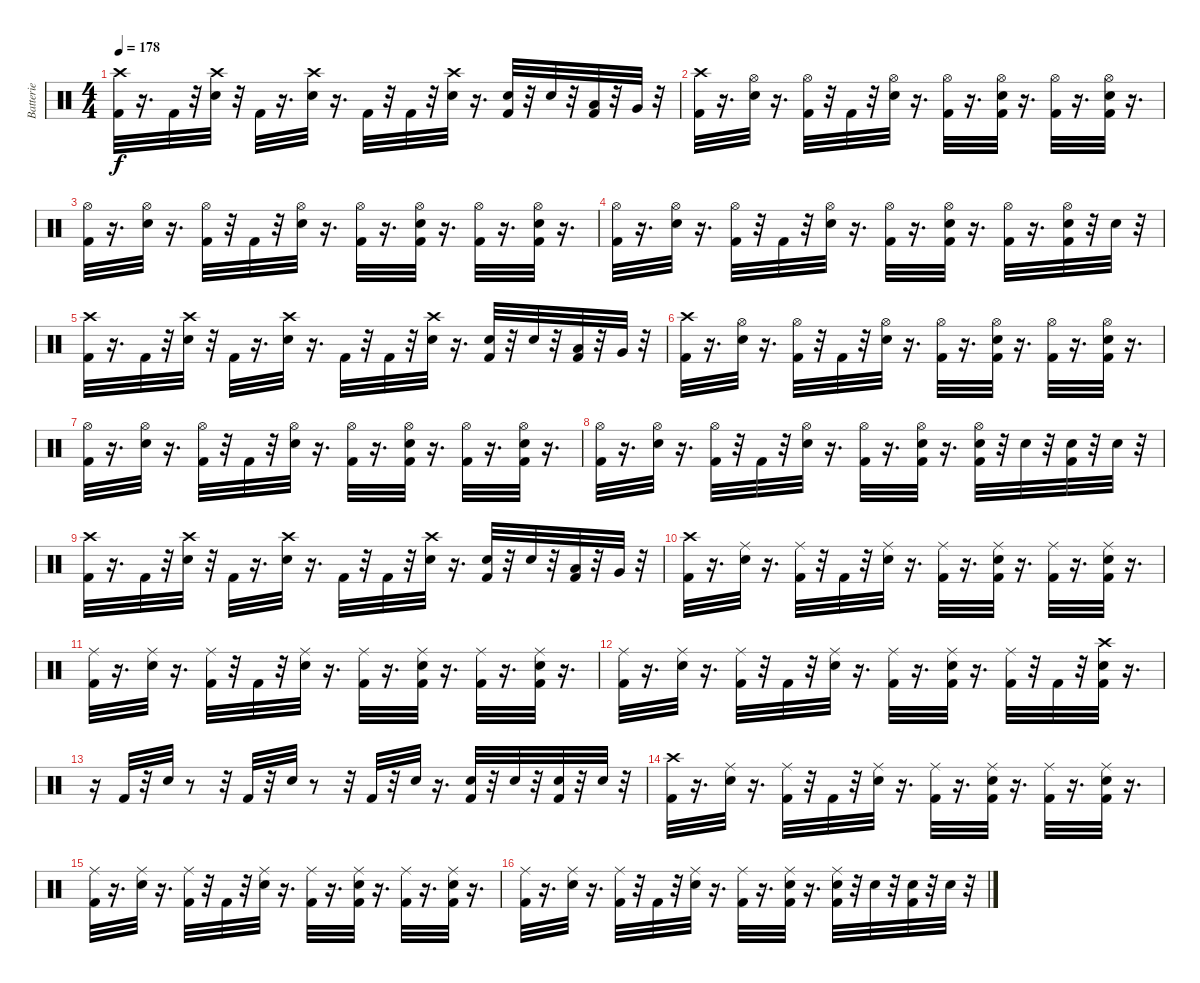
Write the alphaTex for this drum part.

\track ("Batterie" "Batterie") {instrument percussion}
\staff {score}
\articulation defaults
\ts (4 4)
\tempo 178
\clef neutral
\ks c
("Kick (hit) 2" "Crash high (hit)").32{dy f} r.16{d} "Kick (hit) 2".32 r.32 ("Crash high (hit)" "Electric Snare (hit)").32 r.32 "Kick (hit) 2".32 r.16{d} ("Electric Snare (hit)" "Crash high (hit)").32 r.16{d} "Kick (hit) 2".32 r.32 "Kick (hit) 2".32 r.32 ("Electric Snare (hit)" "Crash high (hit)").32 r.16{d} ("Kick (hit) 2" "Electric Snare (hit)").32 r.32 "Electric Snare (hit)".32 r.32 ("Kick (hit) 2" "Low Tom (hit)").32 r.32 "Very Low Tom (hit)".32 r.32 |
("Kick (hit) 2" "Crash high (hit)").32 r.16{d} ("Electric Snare (hit)" "Hi-Hat (open)").32 r.16{d} ("Kick (hit) 2" "Hi-Hat (open)").32 r.32 "Kick (hit) 2".32 r.32 ("Electric Snare (hit)" "Hi-Hat (open)").32 r.16{d} ("Kick (hit) 2" "Hi-Hat (open)").32 r.16{d} ("Electric Snare (hit)" "Kick (hit) 2" "Hi-Hat (open)").32 r.16{d} ("Kick (hit) 2" "Hi-Hat (open)").32 r.16{d} ("Electric Snare (hit)" "Kick (hit) 2" "Hi-Hat (open)").32 r.16{d} |
("Kick (hit) 2" "Hi-Hat (open)").32 r.16{d} ("Electric Snare (hit)" "Hi-Hat (open)").32 r.16{d} ("Kick (hit) 2" "Hi-Hat (open)").32 r.32 "Kick (hit) 2".32 r.32 ("Electric Snare (hit)" "Hi-Hat (open)").32 r.16{d} ("Kick (hit) 2" "Hi-Hat (open)").32 r.16{d} ("Kick (hit) 2" "Electric Snare (hit)" "Hi-Hat (open)").32 r.16{d} ("Kick (hit) 2" "Hi-Hat (open)").32 r.16{d} ("Kick (hit) 2" "Electric Snare (hit)" "Hi-Hat (open)").32 r.16{d} |
("Kick (hit) 2" "Hi-Hat (open)").32 r.16{d} ("Electric Snare (hit)" "Hi-Hat (open)").32 r.16{d} ("Kick (hit) 2" "Hi-Hat (open)").32 r.32 "Kick (hit) 2".32 r.32 ("Electric Snare (hit)" "Hi-Hat (open)").32 r.16{d} ("Kick (hit) 2" "Hi-Hat (open)").32 r.16{d} ("Electric Snare (hit)" "Kick (hit) 2" "Hi-Hat (open)").32 r.16{d} ("Kick (hit) 2" "Hi-Hat (open)").32 r.16{d} ("Electric Snare (hit)" "Kick (hit) 2" "Hi-Hat (open)").32 r.32 "Electric Snare (hit)".32 r.32 |
("Kick (hit) 2" "Crash high (hit)").32 r.16{d} "Kick (hit) 2".32 r.32 ("Crash high (hit)" "Electric Snare (hit)").32 r.32 "Kick (hit) 2".32 r.16{d} ("Electric Snare (hit)" "Crash high (hit)").32 r.16{d} "Kick (hit) 2".32 r.32 "Kick (hit) 2".32 r.32 ("Electric Snare (hit)" "Crash high (hit)").32 r.16{d} ("Kick (hit) 2" "Electric Snare (hit)").32 r.32 "Electric Snare (hit)".32 r.32 ("Kick (hit) 2" "Low Tom (hit)").32 r.32 "Very Low Tom (hit)".32 r.32 |
("Kick (hit) 2" "Crash high (hit)").32 r.16{d} ("Electric Snare (hit)" "Hi-Hat (open)").32 r.16{d} ("Kick (hit) 2" "Hi-Hat (open)").32 r.32 "Kick (hit) 2".32 r.32 ("Electric Snare (hit)" "Hi-Hat (open)").32 r.16{d} ("Kick (hit) 2" "Hi-Hat (open)").32 r.16{d} ("Electric Snare (hit)" "Kick (hit) 2" "Hi-Hat (open)").32 r.16{d} ("Kick (hit) 2" "Hi-Hat (open)").32 r.16{d} ("Electric Snare (hit)" "Kick (hit) 2" "Hi-Hat (open)").32 r.16{d} |
("Kick (hit) 2" "Hi-Hat (open)").32 r.16{d} ("Electric Snare (hit)" "Hi-Hat (open)").32 r.16{d} ("Kick (hit) 2" "Hi-Hat (open)").32 r.32 "Kick (hit) 2".32 r.32 ("Electric Snare (hit)" "Hi-Hat (open)").32 r.16{d} ("Kick (hit) 2" "Hi-Hat (open)").32 r.16{d} ("Kick (hit) 2" "Electric Snare (hit)" "Hi-Hat (open)").32 r.16{d} ("Kick (hit) 2" "Hi-Hat (open)").32 r.16{d} ("Kick (hit) 2" "Electric Snare (hit)" "Hi-Hat (open)").32 r.16{d} |
("Kick (hit) 2" "Hi-Hat (open)").32 r.16{d} ("Electric Snare (hit)" "Hi-Hat (open)").32 r.16{d} ("Kick (hit) 2" "Hi-Hat (open)").32 r.32 "Kick (hit) 2".32 r.32 ("Electric Snare (hit)" "Hi-Hat (open)").32 r.16{d} ("Kick (hit) 2" "Hi-Hat (open)").32 r.16{d} ("Electric Snare (hit)" "Kick (hit) 2" "Hi-Hat (open)").32 r.16{d} ("Kick (hit) 2" "Hi-Hat (open)" "Electric Snare (hit)").32 r.32 "Electric Snare (hit)".32 r.32 ("Electric Snare (hit)" "Kick (hit) 2").32 r.32 "Electric Snare (hit)".32 r.32 |
("Kick (hit) 2" "Crash high (hit)").32 r.16{d} "Kick (hit) 2".32 r.32 ("Crash high (hit)" "Electric Snare (hit)").32 r.32 "Kick (hit) 2".32 r.16{d} ("Electric Snare (hit)" "Crash high (hit)").32 r.16{d} "Kick (hit) 2".32 r.32 "Kick (hit) 2".32 r.32 ("Electric Snare (hit)" "Crash high (hit)").32 r.16{d} ("Kick (hit) 2" "Electric Snare (hit)").32 r.32 "Electric Snare (hit)".32 r.32 ("Kick (hit) 2" "Low Tom (hit)").32 r.32 "Very Low Tom (hit)".32 r.32 |
("Kick (hit) 2" "Crash high (hit)").32 r.16{d} ("Electric Snare (hit)" "Ride (middle)").32 r.16{d} ("Kick (hit) 2" "Ride (middle)").32 r.32 "Kick (hit) 2".32 r.32 ("Electric Snare (hit)" "Ride (middle)").32 r.16{d} ("Kick (hit) 2" "Ride (middle)").32 r.16{d} ("Electric Snare (hit)" "Ride (middle)" "Kick (hit) 2").32 r.16{d} ("Kick (hit) 2" "Ride (middle)").32 r.16{d} ("Electric Snare (hit)" "Ride (middle)" "Kick (hit) 2").32 r.16{d} |
("Kick (hit) 2" "Ride (middle)").32 r.16{d} ("Electric Snare (hit)" "Ride (middle)").32 r.16{d} ("Kick (hit) 2" "Ride (middle)").32 r.32 "Kick (hit) 2".32 r.32 ("Electric Snare (hit)" "Ride (middle)").32 r.16{d} ("Kick (hit) 2" "Ride (middle)").32 r.16{d} ("Electric Snare (hit)" "Ride (middle)" "Kick (hit) 2").32 r.16{d} ("Kick (hit) 2" "Ride (middle)").32 r.16{d} ("Electric Snare (hit)" "Ride (middle)" "Kick (hit) 2").32 r.16{d} |
("Kick (hit) 2" "Ride (middle)").32 r.16{d} ("Electric Snare (hit)" "Ride (middle)").32 r.16{d} ("Kick (hit) 2" "Ride (middle)").32 r.32 "Kick (hit) 2".32 r.32 ("Electric Snare (hit)" "Ride (middle)").32 r.16{d} ("Kick (hit) 2" "Ride (middle)").32 r.16{d} ("Electric Snare (hit)" "Ride (middle)" "Kick (hit) 2").32 r.16{d} ("Kick (hit) 2" "Ride (middle)").32 r.32 "Kick (hit) 2".32 r.32 ("Electric Snare (hit)" "Kick (hit) 2" "Crash high (hit)").32 r.16{d} |
r.16 "Kick (hit) 2".32 r.32 "Electric Snare (hit)".32 r.8 r.32 "Kick (hit) 2".32 r.32 "Electric Snare (hit)".32 r.8 r.32 "Kick (hit) 2".32 r.32 "Electric Snare (hit)".32 r.16{d} ("Kick (hit) 2" "Electric Snare (hit)").32 r.32 "Electric Snare (hit)".32 r.32 ("Electric Snare (hit)" "Kick (hit) 2").32 r.32 "Electric Snare (hit)".32 r.32 |
("Kick (hit) 2" "Crash high (hit)").32 r.16{d} ("Electric Snare (hit)" "Ride (middle)").32 r.16{d} ("Kick (hit) 2" "Ride (middle)").32 r.32 "Kick (hit) 2".32 r.32 ("Electric Snare (hit)" "Ride (middle)").32 r.16{d} ("Kick (hit) 2" "Ride (middle)").32 r.16{d} ("Electric Snare (hit)" "Ride (middle)" "Kick (hit) 2").32 r.16{d} ("Kick (hit) 2" "Ride (middle)").32 r.16{d} ("Electric Snare (hit)" "Ride (middle)" "Kick (hit) 2").32 r.16{d} |
("Kick (hit) 2" "Ride (middle)").32 r.16{d} ("Electric Snare (hit)" "Ride (middle)").32 r.16{d} ("Kick (hit) 2" "Ride (middle)").32 r.32 "Kick (hit) 2".32 r.32 ("Electric Snare (hit)" "Ride (middle)").32 r.16{d} ("Kick (hit) 2" "Ride (middle)").32 r.16{d} ("Electric Snare (hit)" "Ride (middle)" "Kick (hit) 2").32 r.16{d} ("Kick (hit) 2" "Ride (middle)").32 r.16{d} ("Electric Snare (hit)" "Ride (middle)" "Kick (hit) 2").32 r.16{d} |
("Kick (hit) 2" "Ride (middle)").32 r.16{d} ("Electric Snare (hit)" "Ride (middle)").32 r.16{d} ("Kick (hit) 2" "Ride (middle)").32 r.32 "Kick (hit) 2".32 r.32 ("Electric Snare (hit)" "Ride (middle)").32 r.16{d} ("Kick (hit) 2" "Ride (middle)").32 r.16{d} ("Electric Snare (hit)" "Ride (middle)" "Kick (hit) 2").32 r.16{d} ("Kick (hit) 2" "Electric Snare (hit)" "Ride (middle)").32 r.32 "Electric Snare (hit)".32 r.32 ("Electric Snare (hit)" "Kick (hit) 2").32 r.32 "Electric Snare (hit)".32 r.32
